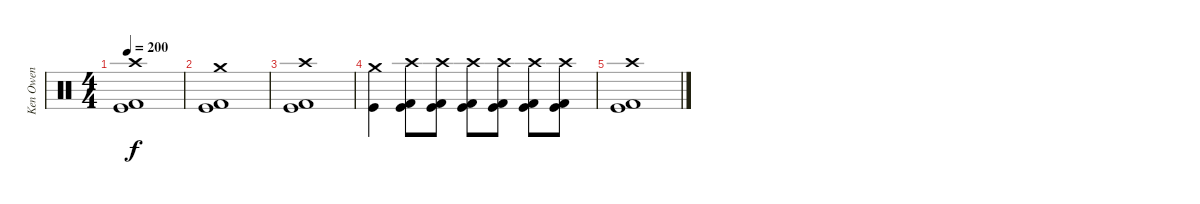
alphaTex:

\track ("Ken Owen" "Ken Owen") {instrument percussion}
\staff {score}
\articulation defaults
\ts (4 4)
\tempo 200
\clef neutral
\ks c
("Crash high (hit)" "Kick (hit)" "Kick (hit) 2").1{dy f} |
("Crash medium (hit)" "Kick (hit)" "Kick (hit) 2").1 |
("Crash high (hit)" "Kick (hit)" "Kick (hit) 2").1 |
("Crash medium (hit)" "Kick (hit)").4 ("Crash high (hit)" "Kick (hit)" "Kick (hit) 2").8 ("Crash high (hit)" "Kick (hit)" "Kick (hit) 2").8 ("Crash high (hit)" "Kick (hit)" "Kick (hit) 2").8 ("Crash high (hit)" "Kick (hit)" "Kick (hit) 2").8 ("Crash high (hit)" "Kick (hit)" "Kick (hit) 2").8 ("Crash high (hit)" "Kick (hit)" "Kick (hit) 2").8 |
("Crash high (hit)" "Kick (hit)" "Kick (hit) 2").1
